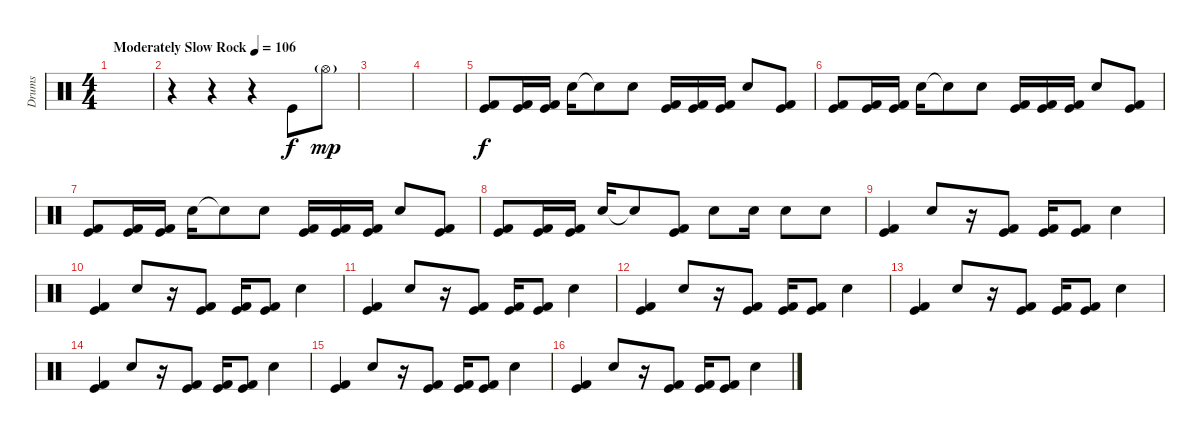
\track ("Drums" "Drums") {instrument percussion}
\staff {score}
\articulation defaults
\ts (4 4)
\tempo (106 "Moderately Slow Rock")
\clef neutral
\ks c
|
r.4 r.4 r.4 "Kick (hit)".8 "Hi-Hat (open)"{g}.8{dy mp} |
|
|
("Kick (hit)" "Kick (hit) 2").8{dy f} ("Kick (hit)" "Kick (hit) 2").16 ("Kick (hit)" "Kick (hit) 2").16 "Electric Snare (hit)".16 "Snare (hit) 2"{t}.8 "Electric Snare (hit)".8 ("Kick (hit)" "Kick (hit) 2").16 ("Kick (hit)" "Kick (hit) 2").16 ("Kick (hit)" "Kick (hit) 2").16 "Electric Snare (hit)".8 ("Kick (hit)" "Kick (hit) 2").8 |
("Kick (hit)" "Kick (hit) 2").8 ("Kick (hit)" "Kick (hit) 2").16 ("Kick (hit)" "Kick (hit) 2").16 "Electric Snare (hit)".16 "Snare (hit) 2"{t}.8 "Electric Snare (hit)".8 ("Kick (hit)" "Kick (hit) 2").16 ("Kick (hit)" "Kick (hit) 2").16 ("Kick (hit)" "Kick (hit) 2").16 "Electric Snare (hit)".8 ("Kick (hit)" "Kick (hit) 2").8 |
("Kick (hit)" "Kick (hit) 2").8 ("Kick (hit)" "Kick (hit) 2").16 ("Kick (hit)" "Kick (hit) 2").16 "Electric Snare (hit)".16 "Snare (hit) 2"{t}.8 "Electric Snare (hit)".8 ("Kick (hit)" "Kick (hit) 2").16 ("Kick (hit)" "Kick (hit) 2").16 ("Kick (hit)" "Kick (hit) 2").16 "Electric Snare (hit)".8 ("Kick (hit)" "Kick (hit) 2").8 |
("Kick (hit)" "Kick (hit) 2").8 ("Kick (hit)" "Kick (hit) 2").16 ("Kick (hit)" "Kick (hit) 2").16 "Electric Snare (hit)".16 "Snare (hit) 2"{t}.8 ("Kick (hit)" "Kick (hit) 2").8 "Electric Snare (hit)".8 "Electric Snare (hit)".16 "Electric Snare (hit)".8 "Electric Snare (hit)".8 |
("Kick (hit)" "Kick (hit) 2").4 "Snare (hit) 2".8 r.16 ("Kick (hit)" "Kick (hit) 2").8 ("Kick (hit)" "Kick (hit) 2").16 ("Kick (hit)" "Kick (hit) 2").8 "Snare (hit) 2".4 |
("Kick (hit)" "Kick (hit) 2").4 "Snare (hit) 2".8 r.16 ("Kick (hit)" "Kick (hit) 2").8 ("Kick (hit)" "Kick (hit) 2").16 ("Kick (hit)" "Kick (hit) 2").8 "Snare (hit) 2".4 |
("Kick (hit)" "Kick (hit) 2").4 "Snare (hit) 2".8 r.16 ("Kick (hit)" "Kick (hit) 2").8 ("Kick (hit)" "Kick (hit) 2").16 ("Kick (hit)" "Kick (hit) 2").8 "Snare (hit) 2".4 |
("Kick (hit)" "Kick (hit) 2").4 "Snare (hit) 2".8 r.16 ("Kick (hit)" "Kick (hit) 2").8 ("Kick (hit)" "Kick (hit) 2").16 ("Kick (hit)" "Kick (hit) 2").8 "Snare (hit) 2".4 |
("Kick (hit)" "Kick (hit) 2").4 "Snare (hit) 2".8 r.16 ("Kick (hit)" "Kick (hit) 2").8 ("Kick (hit)" "Kick (hit) 2").16 ("Kick (hit)" "Kick (hit) 2").8 "Snare (hit) 2".4 |
("Kick (hit)" "Kick (hit) 2").4 "Snare (hit) 2".8 r.16 ("Kick (hit)" "Kick (hit) 2").8 ("Kick (hit)" "Kick (hit) 2").16 ("Kick (hit)" "Kick (hit) 2").8 "Snare (hit) 2".4 |
("Kick (hit)" "Kick (hit) 2").4 "Snare (hit) 2".8 r.16 ("Kick (hit)" "Kick (hit) 2").8 ("Kick (hit)" "Kick (hit) 2").16 ("Kick (hit)" "Kick (hit) 2").8 "Snare (hit) 2".4 |
("Kick (hit)" "Kick (hit) 2").4 "Snare (hit) 2".8 r.16 ("Kick (hit)" "Kick (hit) 2").8 ("Kick (hit)" "Kick (hit) 2").16 ("Kick (hit)" "Kick (hit) 2").8 "Snare (hit) 2".4
